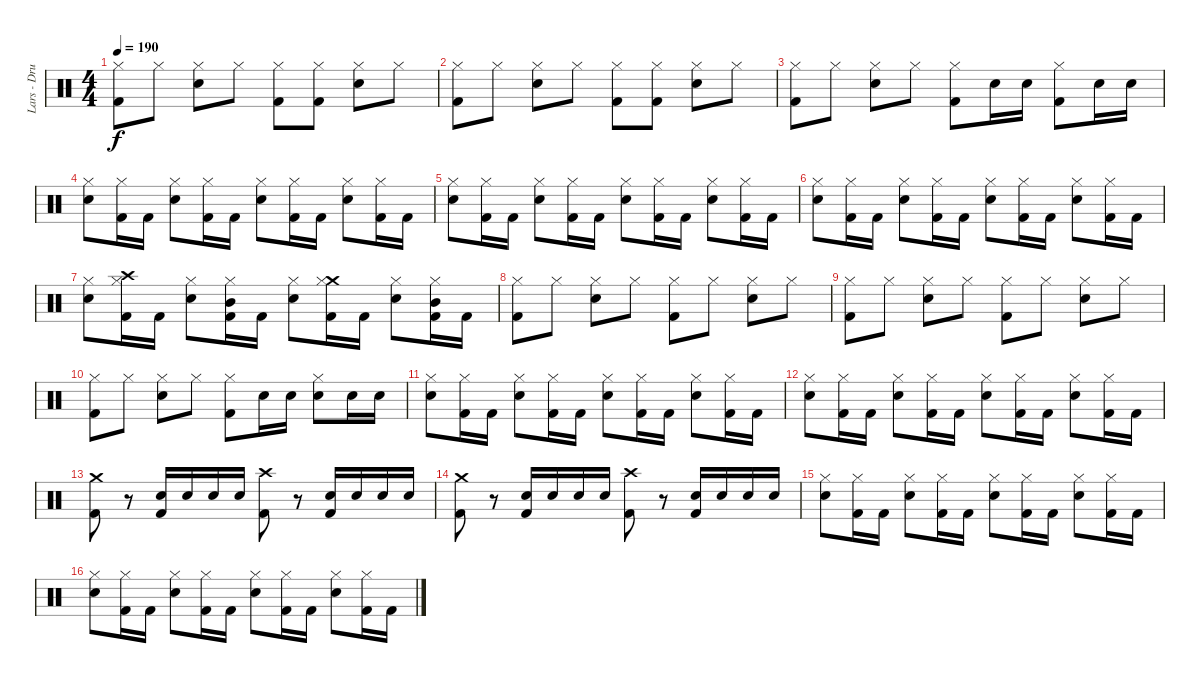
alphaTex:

\track ("Lars - Drums" "Lars - Dru") {instrument percussion}
\staff {score}
\articulation defaults
\ts (4 4)
\tempo 190
\clef neutral
\ks c
("Kick (hit) 2" "Hi-Hat (closed)").8{dy f} "Hi-Hat (closed)".8 ("Snare (hit) 2" "Hi-Hat (closed)").8 "Hi-Hat (closed)".8 ("Kick (hit) 2" "Hi-Hat (closed)").8 ("Kick (hit) 2" "Hi-Hat (closed)").8 ("Snare (hit) 2" "Hi-Hat (closed)").8 "Hi-Hat (closed)".8 |
("Kick (hit) 2" "Hi-Hat (closed)").8 "Hi-Hat (closed)".8 ("Snare (hit) 2" "Hi-Hat (closed)").8 "Hi-Hat (closed)".8 ("Kick (hit) 2" "Hi-Hat (closed)").8 ("Kick (hit) 2" "Hi-Hat (closed)").8 ("Snare (hit) 2" "Hi-Hat (closed)").8 "Hi-Hat (closed)".8 |
("Kick (hit) 2" "Hi-Hat (closed)").8 "Hi-Hat (closed)".8 ("Snare (hit) 2" "Hi-Hat (closed)").8 "Hi-Hat (closed)".8 ("Kick (hit) 2" "Hi-Hat (closed)").8 "Snare (hit) 2".16 "Snare (hit) 2".16 ("Kick (hit) 2" "Hi-Hat (closed)").8 "Snare (hit) 2".16 "Snare (hit) 2".16 |
("Snare (hit) 2" "Hi-Hat (closed)").8 ("Kick (hit) 2" "Hi-Hat (closed)").16 "Kick (hit) 2".16 ("Snare (hit) 2" "Hi-Hat (closed)").8 ("Kick (hit) 2" "Hi-Hat (closed)").16 "Kick (hit) 2".16 ("Snare (hit) 2" "Hi-Hat (closed)").8 ("Kick (hit) 2" "Hi-Hat (closed)").16 "Kick (hit) 2".16 ("Snare (hit) 2" "Hi-Hat (closed)").8 ("Kick (hit) 2" "Hi-Hat (closed)").16 "Kick (hit) 2".16 |
("Snare (hit) 2" "Hi-Hat (closed)").8 ("Kick (hit) 2" "Hi-Hat (closed)").16 "Kick (hit) 2".16 ("Snare (hit) 2" "Hi-Hat (closed)").8 ("Kick (hit) 2" "Hi-Hat (closed)").16 "Kick (hit) 2".16 ("Snare (hit) 2" "Hi-Hat (closed)").8 ("Kick (hit) 2" "Hi-Hat (closed)").16 "Kick (hit) 2".16 ("Snare (hit) 2" "Hi-Hat (closed)").8 ("Kick (hit) 2" "Hi-Hat (closed)").16 "Kick (hit) 2".16 |
("Snare (hit) 2" "Hi-Hat (closed)").8 ("Kick (hit) 2" "Hi-Hat (closed)").16 "Kick (hit) 2".16 ("Snare (hit) 2" "Hi-Hat (closed)").8 ("Kick (hit) 2" "Hi-Hat (closed)").16 "Kick (hit) 2".16 ("Snare (hit) 2" "Hi-Hat (closed)").8 ("Kick (hit) 2" "Hi-Hat (closed)").16 "Kick (hit) 2".16 ("Snare (hit) 2" "Hi-Hat (closed)").8 ("Kick (hit) 2" "Hi-Hat (closed)").16 "Kick (hit) 2".16 |
("Snare (hit) 2" "Hi-Hat (closed)").8 ("Kick (hit) 2" "Crash high (hit)" "Hi-Hat (closed)").16 "Kick (hit) 2".16 ("Snare (hit) 2" "Hi-Hat (closed)").8 ("Kick (hit) 2" "Mid Tom (hit)" "Hi-Hat (closed)").16 "Kick (hit) 2".16 ("Snare (hit) 2" "Hi-Hat (closed)").8 ("Kick (hit) 2" "Crash medium (hit)" "Hi-Hat (closed)").16 "Kick (hit) 2".16 ("Snare (hit) 2" "Hi-Hat (closed)").8 ("Kick (hit) 2" "Mid Tom (hit)" "Hi-Hat (closed)").16 "Kick (hit) 2".16 |
("Kick (hit) 2" "Hi-Hat (closed)").8 "Hi-Hat (closed)".8 ("Snare (hit) 2" "Hi-Hat (closed)").8 "Hi-Hat (closed)".8 ("Kick (hit) 2" "Hi-Hat (closed)").8 "Hi-Hat (closed)".8 ("Snare (hit) 2" "Hi-Hat (closed)").8 "Hi-Hat (closed)".8 |
("Kick (hit) 2" "Hi-Hat (closed)").8 "Hi-Hat (closed)".8 ("Snare (hit) 2" "Hi-Hat (closed)").8 "Hi-Hat (closed)".8 ("Kick (hit) 2" "Hi-Hat (closed)").8 "Hi-Hat (closed)".8 ("Snare (hit) 2" "Hi-Hat (closed)").8 "Hi-Hat (closed)".8 |
("Kick (hit) 2" "Hi-Hat (closed)").8 "Hi-Hat (closed)".8 ("Snare (hit) 2" "Hi-Hat (closed)").8 "Hi-Hat (closed)".8 ("Kick (hit) 2" "Hi-Hat (closed)").8 "Snare (hit) 2".16 "Snare (hit) 2".16 ("Snare (hit) 2" "Hi-Hat (closed)").8 "Snare (hit) 2".16 "Snare (hit) 2".16 |
("Snare (hit) 2" "Hi-Hat (closed)").8 ("Kick (hit) 2" "Hi-Hat (closed)").16 "Kick (hit) 2".16 ("Snare (hit) 2" "Hi-Hat (closed)").8 ("Kick (hit) 2" "Hi-Hat (closed)").16 "Kick (hit) 2".16 ("Snare (hit) 2" "Hi-Hat (closed)").8 ("Kick (hit) 2" "Hi-Hat (closed)").16 "Kick (hit) 2".16 ("Snare (hit) 2" "Hi-Hat (closed)").8 ("Kick (hit) 2" "Hi-Hat (closed)").16 "Kick (hit) 2".16 |
("Snare (hit) 2" "Hi-Hat (closed)").8 ("Kick (hit) 2" "Hi-Hat (closed)").16 "Kick (hit) 2".16 ("Snare (hit) 2" "Hi-Hat (closed)").8 ("Kick (hit) 2" "Hi-Hat (closed)").16 "Kick (hit) 2".16 ("Snare (hit) 2" "Hi-Hat (closed)").8 ("Kick (hit) 2" "Hi-Hat (closed)").16 "Kick (hit) 2".16 ("Snare (hit) 2" "Hi-Hat (closed)").8 ("Kick (hit) 2" "Hi-Hat (closed)").16 "Kick (hit) 2".16 |
("Crash medium (hit)" "Kick (hit) 2").8 r.8 ("Snare (hit) 2" "Kick (hit) 2").16 "Snare (hit) 2".16 "Snare (hit) 2".16 "Snare (hit) 2".16 ("Crash high (hit)" "Kick (hit) 2").8 r.8 ("Snare (hit) 2" "Kick (hit) 2").16 "Snare (hit) 2".16 "Snare (hit) 2".16 "Snare (hit) 2".16 |
("Crash medium (hit)" "Kick (hit) 2").8 r.8 ("Snare (hit) 2" "Kick (hit) 2").16 "Snare (hit) 2".16 "Snare (hit) 2".16 "Snare (hit) 2".16 ("Crash high (hit)" "Kick (hit) 2").8 r.8 ("Snare (hit) 2" "Kick (hit) 2").16 "Snare (hit) 2".16 "Snare (hit) 2".16 "Snare (hit) 2".16 |
("Snare (hit) 2" "Hi-Hat (closed)").8 ("Kick (hit) 2" "Hi-Hat (closed)").16 "Kick (hit) 2".16 ("Snare (hit) 2" "Hi-Hat (closed)").8 ("Kick (hit) 2" "Hi-Hat (closed)").16 "Kick (hit) 2".16 ("Snare (hit) 2" "Hi-Hat (closed)").8 ("Kick (hit) 2" "Hi-Hat (closed)").16 "Kick (hit) 2".16 ("Snare (hit) 2" "Hi-Hat (closed)").8 ("Kick (hit) 2" "Hi-Hat (closed)").16 "Kick (hit) 2".16 |
("Snare (hit) 2" "Hi-Hat (closed)").8 ("Kick (hit) 2" "Hi-Hat (closed)").16 "Kick (hit) 2".16 ("Snare (hit) 2" "Hi-Hat (closed)").8 ("Kick (hit) 2" "Hi-Hat (closed)").16 "Kick (hit) 2".16 ("Snare (hit) 2" "Hi-Hat (closed)").8 ("Kick (hit) 2" "Hi-Hat (closed)").16 "Kick (hit) 2".16 ("Snare (hit) 2" "Hi-Hat (closed)").8 ("Kick (hit) 2" "Hi-Hat (closed)").16 "Kick (hit) 2".16
